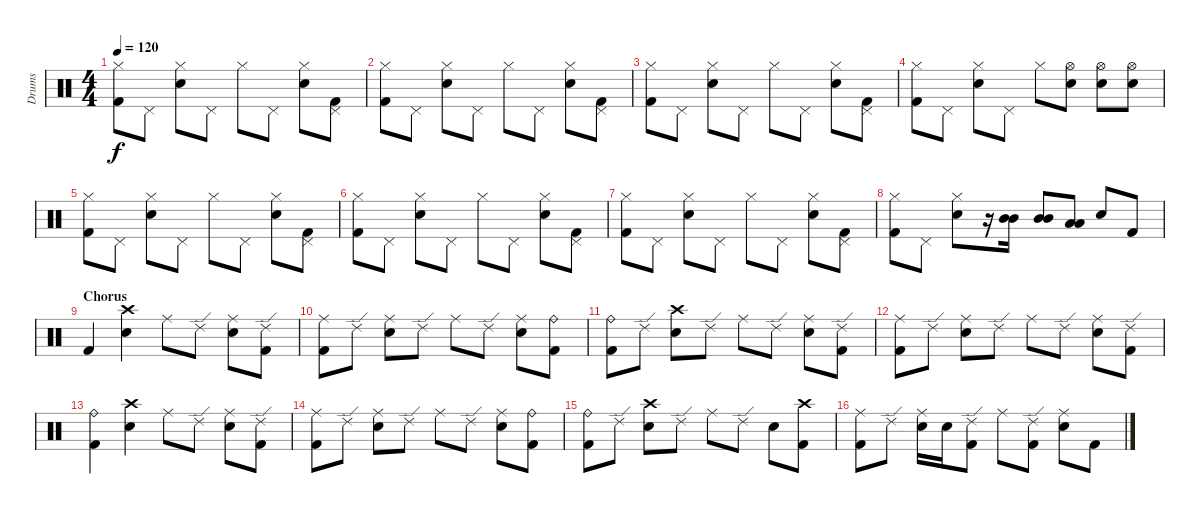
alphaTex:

\track ("Drums" "Drums") {instrument percussion}
\staff {score}
\articulation defaults
\ts (4 4)
\tempo 120
\clef neutral
\ks c
("Kick (hit) 2" "Hi-Hat (closed)").8{dy f} "Pedal Hi-Hat (hit)".8 ("Electric Snare (hit)" "Hi-Hat (closed)").8 "Pedal Hi-Hat (hit)".8 "Hi-Hat (closed)".8 "Pedal Hi-Hat (hit)".8 ("Electric Snare (hit)" "Hi-Hat (closed)").8 ("Kick (hit) 2" "Pedal Hi-Hat (hit)").8 |
("Kick (hit) 2" "Hi-Hat (closed)").8 "Pedal Hi-Hat (hit)".8 ("Electric Snare (hit)" "Hi-Hat (closed)").8 "Pedal Hi-Hat (hit)".8 "Hi-Hat (closed)".8 "Pedal Hi-Hat (hit)".8 ("Electric Snare (hit)" "Hi-Hat (closed)").8 ("Kick (hit) 2" "Pedal Hi-Hat (hit)").8 |
("Kick (hit) 2" "Hi-Hat (closed)").8 "Pedal Hi-Hat (hit)".8 ("Electric Snare (hit)" "Hi-Hat (closed)").8 "Pedal Hi-Hat (hit)".8 "Hi-Hat (closed)".8 "Pedal Hi-Hat (hit)".8 ("Electric Snare (hit)" "Hi-Hat (closed)").8 ("Kick (hit) 2" "Pedal Hi-Hat (hit)").8 |
("Kick (hit) 2" "Hi-Hat (closed)").8 "Pedal Hi-Hat (hit)".8 ("Electric Snare (hit)" "Hi-Hat (closed)").8 "Pedal Hi-Hat (hit)".8 "Hi-Hat (closed)".8 ("Snare (hit) 2" "Hi-Hat (open)").8 ("Snare (hit) 2" "Hi-Hat (open)").8 ("Snare (hit) 2" "Hi-Hat (open)").8 |
("Kick (hit) 2" "Hi-Hat (closed)").8 "Pedal Hi-Hat (hit)".8 ("Electric Snare (hit)" "Hi-Hat (closed)").8 "Pedal Hi-Hat (hit)".8 "Hi-Hat (closed)".8 "Pedal Hi-Hat (hit)".8 ("Electric Snare (hit)" "Hi-Hat (closed)").8 ("Kick (hit) 2" "Pedal Hi-Hat (hit)").8 |
("Kick (hit) 2" "Hi-Hat (closed)").8 "Pedal Hi-Hat (hit)".8 ("Electric Snare (hit)" "Hi-Hat (closed)").8 "Pedal Hi-Hat (hit)".8 "Hi-Hat (closed)".8 "Pedal Hi-Hat (hit)".8 ("Electric Snare (hit)" "Hi-Hat (closed)").8 ("Kick (hit) 2" "Pedal Hi-Hat (hit)").8 |
("Kick (hit) 2" "Hi-Hat (closed)").8 "Pedal Hi-Hat (hit)".8 ("Electric Snare (hit)" "Hi-Hat (closed)").8 "Pedal Hi-Hat (hit)".8 "Hi-Hat (closed)".8 "Pedal Hi-Hat (hit)".8 ("Electric Snare (hit)" "Hi-Hat (closed)").8 ("Kick (hit) 2" "Pedal Hi-Hat (hit)").8 |
("Kick (hit) 2" "Hi-Hat (closed)").8 "Pedal Hi-Hat (hit)".8 ("Electric Snare (hit)" "Hi-Hat (closed)").8 r.16 ("Mid Tom (hit)" "Mid Tom (hit)").16 ("Mid Tom (hit)" "Mid Tom (hit)").8 ("Low Tom (hit)" "Low Tom (hit)").8 "Electric Snare (hit)".8 "Kick (hit) 2".8 |
\section ("" "Chorus")
"Kick (hit) 2".4 ("Electric Snare (hit)" "Crash high (hit)").4 "Ride (middle)".8 "Ride (edge) 2".8 ("Electric Snare (hit)" "Ride (middle)").8 ("Kick (hit) 2" "Ride (edge) 2").8 |
("Kick (hit) 2" "Ride (middle)").8 "Ride (edge) 2".8 ("Electric Snare (hit)" "Ride (middle)").8 "Ride (edge) 2".8 "Ride (middle)".8 "Ride (edge) 2".8 ("Electric Snare (hit)" "Ride (middle)").8 ("Kick (hit) 2" "Ride (bell)").8 |
("Kick (hit) 2" "Ride (bell)").8 "Ride (edge) 2".8 ("Electric Snare (hit)" "Crash high (hit)").8 "Ride (edge) 2".8 "Ride (middle)".8 "Ride (edge) 2".8 ("Electric Snare (hit)" "Ride (middle)").8 ("Kick (hit) 2" "Ride (edge) 2").8 |
("Kick (hit) 2" "Ride (middle)").8 "Ride (edge) 2".8 ("Electric Snare (hit)" "Ride (middle)").8 "Ride (edge) 2".8 "Ride (middle)".8 "Ride (edge) 2".8 ("Electric Snare (hit)" "Ride (middle)").8 ("Kick (hit) 2" "Ride (edge) 2").8 |
("Kick (hit) 2" "Ride (bell)").4 ("Electric Snare (hit)" "Crash high (hit)").4 "Ride (middle)".8 "Ride (edge) 2".8 ("Electric Snare (hit)" "Ride (middle)").8 ("Kick (hit) 2" "Ride (edge) 2").8 |
("Kick (hit) 2" "Ride (middle)").8 "Ride (edge) 2".8 ("Electric Snare (hit)" "Ride (middle)").8 "Ride (edge) 2".8 "Ride (middle)".8 "Ride (edge) 2".8 ("Electric Snare (hit)" "Ride (middle)").8 ("Kick (hit) 2" "Ride (bell)").8 |
("Kick (hit) 2" "Ride (bell)").8 "Ride (edge) 2".8 ("Electric Snare (hit)" "Crash high (hit)").8 "Ride (edge) 2".8 "Ride (middle)".8 "Ride (edge) 2".8 "Electric Snare (hit)".8 ("Kick (hit) 2" "Crash high (hit)").8 |
("Kick (hit) 2" "Ride (middle)").8 "Ride (edge) 2".8 ("Electric Snare (hit)" "Ride (middle)").16 "Snare (hit) 2".16 ("Kick (hit) 2" "Ride (edge) 2").8 "Ride (middle)".8 ("Kick (hit) 2" "Ride (edge) 2").8 ("Electric Snare (hit)" "Ride (middle)").8 "Kick (hit) 2".8
